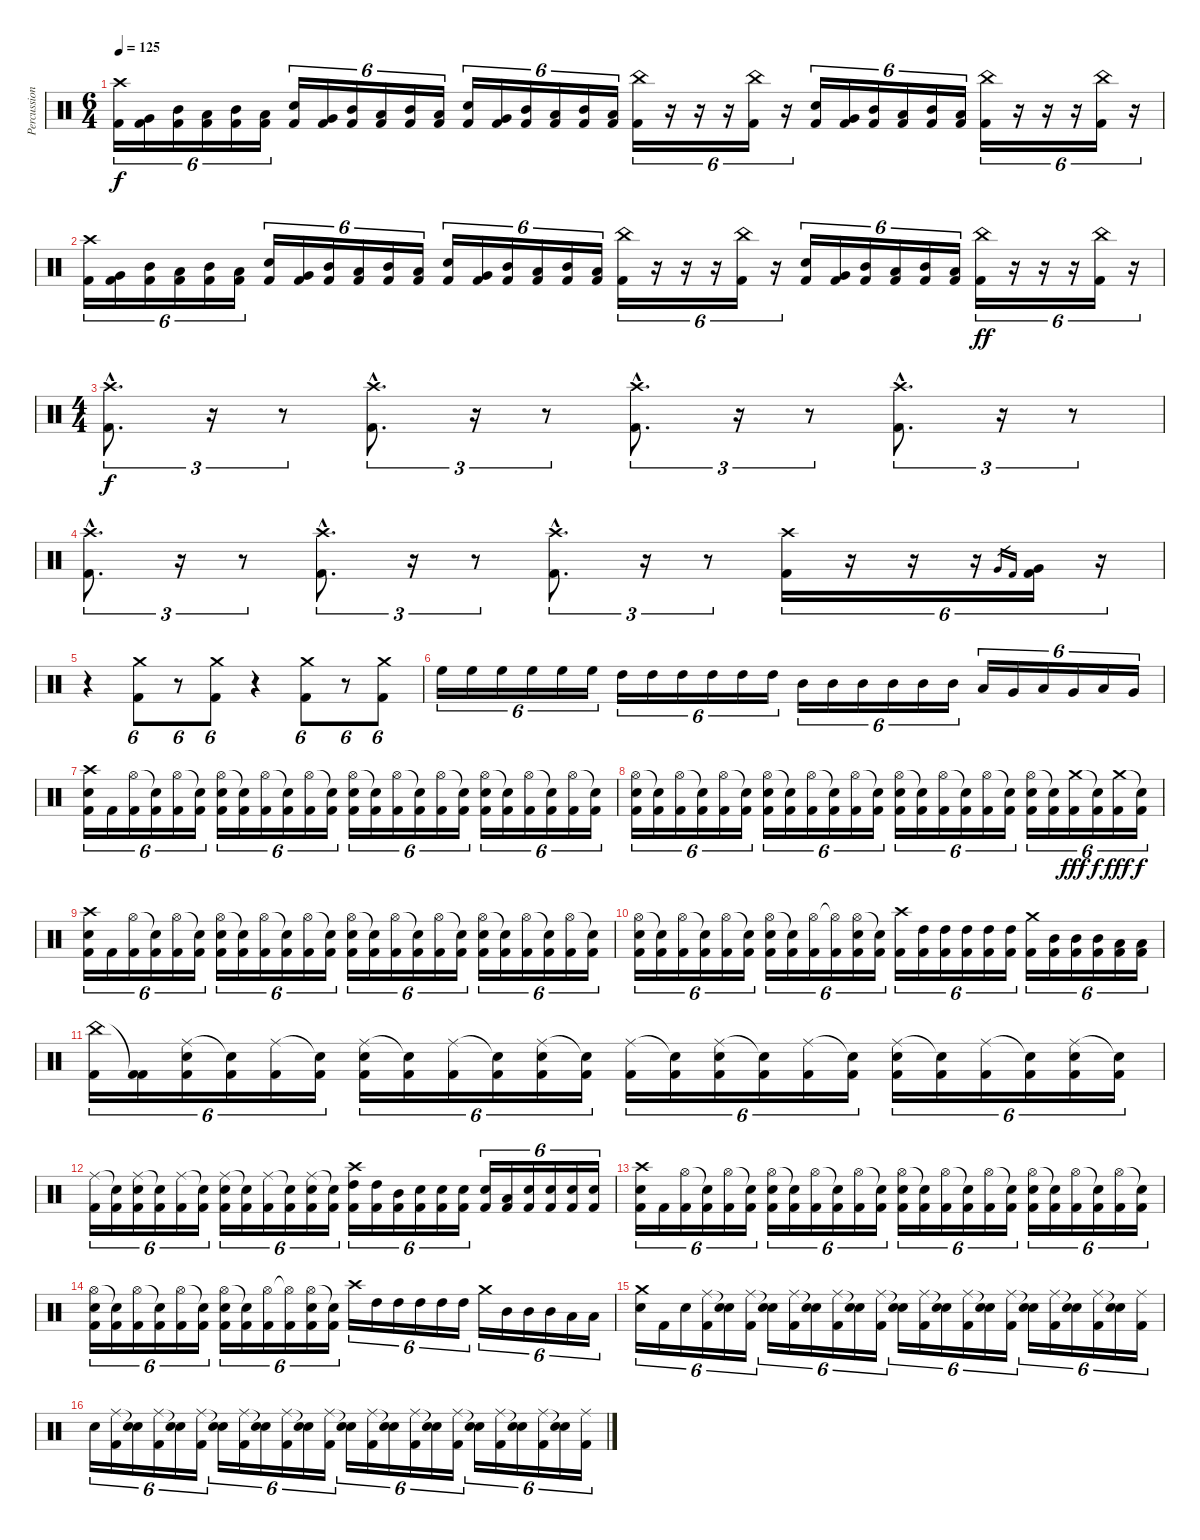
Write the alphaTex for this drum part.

\track ("Percussion" "Percussion") {instrument percussion}
\staff {score}
\articulation defaults
\ts (6 4)
\tempo 125
\clef neutral
\ks c
("Crash high (hit)" "Kick (hit) 2").16{tu (6 4) dy f} ("Very Low Tom (hit)" "Kick (hit) 2").16{tu (6 4)} ("Mid Tom (hit)" "Kick (hit) 2").16{tu (6 4)} ("Low Tom (hit)" "Kick (hit) 2").16{tu (6 4)} ("Mid Tom (hit)" "Kick (hit) 2").16{tu (6 4)} ("Low Tom (hit)" "Kick (hit) 2").16{tu (6 4)} ("Snare (hit) 2" "Kick (hit) 2").16{tu (6 4)} ("Very Low Tom (hit)" "Kick (hit) 2").16{tu (6 4)} ("Mid Tom (hit)" "Kick (hit) 2").16{tu (6 4)} ("Low Tom (hit)" "Kick (hit) 2").16{tu (6 4)} ("Mid Tom (hit)" "Kick (hit) 2").16{tu (6 4)} ("Low Tom (hit)" "Kick (hit) 2").16{tu (6 4)} ("Snare (hit) 2" "Kick (hit) 2").16{tu (6 4)} ("Very Low Tom (hit)" "Kick (hit) 2").16{tu (6 4)} ("Mid Tom (hit)" "Kick (hit) 2").16{tu (6 4)} ("Low Tom (hit)" "Kick (hit) 2").16{tu (6 4)} ("Mid Tom (hit)" "Kick (hit) 2").16{tu (6 4)} ("Low Tom (hit)" "Kick (hit) 2").16{tu (6 4)} ("China (hit)" "Kick (hit) 2").16{tu (6 4)} r.16{tu (6 4)} r.16{tu (6 4)} r.16{tu (6 4)} ("China (hit)" "Kick (hit) 2").16{tu (6 4)} r.16{tu (6 4)} ("Snare (hit) 2" "Kick (hit) 2").16{tu (6 4)} ("Very Low Tom (hit)" "Kick (hit) 2").16{tu (6 4)} ("Mid Tom (hit)" "Kick (hit) 2").16{tu (6 4)} ("Low Tom (hit)" "Kick (hit) 2").16{tu (6 4)} ("Mid Tom (hit)" "Kick (hit) 2").16{tu (6 4)} ("Low Tom (hit)" "Kick (hit) 2").16{tu (6 4)} ("China (hit)" "Kick (hit) 2").16{tu (6 4)} r.16{tu (6 4)} r.16{tu (6 4)} r.16{tu (6 4)} ("China (hit)" "Kick (hit) 2").16{tu (6 4)} r.16{tu (6 4)} |
("Crash high (hit)" "Kick (hit) 2").16{tu (6 4)} ("Very Low Tom (hit)" "Kick (hit) 2").16{tu (6 4)} ("Mid Tom (hit)" "Kick (hit) 2").16{tu (6 4)} ("Low Tom (hit)" "Kick (hit) 2").16{tu (6 4)} ("Mid Tom (hit)" "Kick (hit) 2").16{tu (6 4)} ("Low Tom (hit)" "Kick (hit) 2").16{tu (6 4)} ("Snare (hit) 2" "Kick (hit) 2").16{tu (6 4)} ("Very Low Tom (hit)" "Kick (hit) 2").16{tu (6 4)} ("Mid Tom (hit)" "Kick (hit) 2").16{tu (6 4)} ("Low Tom (hit)" "Kick (hit) 2").16{tu (6 4)} ("Mid Tom (hit)" "Kick (hit) 2").16{tu (6 4)} ("Low Tom (hit)" "Kick (hit) 2").16{tu (6 4)} ("Snare (hit) 2" "Kick (hit) 2").16{tu (6 4)} ("Very Low Tom (hit)" "Kick (hit) 2").16{tu (6 4)} ("Mid Tom (hit)" "Kick (hit) 2").16{tu (6 4)} ("Low Tom (hit)" "Kick (hit) 2").16{tu (6 4)} ("Mid Tom (hit)" "Kick (hit) 2").16{tu (6 4)} ("Low Tom (hit)" "Kick (hit) 2").16{tu (6 4)} ("China (hit)" "Kick (hit) 2").16{tu (6 4)} r.16{tu (6 4)} r.16{tu (6 4)} r.16{tu (6 4)} ("China (hit)" "Kick (hit) 2").16{tu (6 4)} r.16{tu (6 4)} ("Snare (hit) 2" "Kick (hit) 2").16{tu (6 4)} ("Very Low Tom (hit)" "Kick (hit) 2").16{tu (6 4)} ("Mid Tom (hit)" "Kick (hit) 2").16{tu (6 4)} ("Low Tom (hit)" "Kick (hit) 2").16{tu (6 4)} ("Mid Tom (hit)" "Kick (hit) 2").16{tu (6 4)} ("Low Tom (hit)" "Kick (hit) 2").16{tu (6 4)} ("China (hit)" "Kick (hit) 2").16{tu (6 4) dy ff} r.16{tu (6 4)} r.16{tu (6 4)} r.16{tu (6 4)} ("China (hit)" "Kick (hit) 2").16{tu (6 4)} r.16{tu (6 4)} |
\ts (4 4)
("Crash high (hit)"{hac} "Kick (hit) 2"{hac}).8{d tu (3 2) dy f} r.16{tu (3 2) volume 0} r.8{tu (3 2)} ("Crash high (hit)"{hac} "Kick (hit) 2"{hac}).8{d tu (3 2) volume 16} r.16{tu (3 2) volume 0} r.8{tu (3 2)} ("Crash high (hit)"{hac} "Kick (hit) 2"{hac}).8{d tu (3 2) volume 16} r.16{tu (3 2) volume 0} r.8{tu (3 2)} ("Crash high (hit)"{hac} "Kick (hit) 2"{hac}).8{d tu (3 2) volume 16} r.16{tu (3 2) volume 0} r.8{tu (3 2)} |
("Crash high (hit)"{hac} "Kick (hit) 2"{hac}).8{d tu (3 2) volume 16} r.16{tu (3 2) volume 0} r.8{tu (3 2)} ("Crash high (hit)"{hac} "Kick (hit) 2"{hac}).8{d tu (3 2) volume 16} r.16{tu (3 2) volume 0} r.8{tu (3 2)} ("Crash high (hit)"{hac} "Kick (hit) 2"{hac}).8{d tu (3 2) volume 16} r.16{tu (3 2) volume 0} r.8{tu (3 2)} ("Crash high (hit)" "Kick (hit) 2").16{tu (6 4) volume 16} r.16{tu (6 4)} r.16{tu (6 4)} r.16{tu (6 4)} "Very Low Tom (hit)".16{gr} "Kick (hit) 2".16{gr} ("Very Low Tom (hit)" "Kick (hit) 2").16{tu (6 4) volume 16} r.16{tu (6 4)} |
r.4 ("Crash medium (hit)" "Kick (hit) 2").8{tu (6 4)} r.8{tu (6 4)} ("Crash medium (hit)" "Kick (hit) 2").8{tu (6 4) volume 16} r.4{volume 0} ("Crash medium (hit)" "Kick (hit) 2").8{tu (6 4) volume 16} r.8{tu (6 4)} ("Crash medium (hit)" "Kick (hit) 2").8{tu (6 4)} |
"High Floor Tom (hit)".16{tu (6 4)} "High Floor Tom (hit)".16{tu (6 4)} "High Floor Tom (hit)".16{tu (6 4)} "High Floor Tom (hit)".16{tu (6 4)} "High Floor Tom (hit)".16{tu (6 4)} "High Floor Tom (hit)".16{tu (6 4)} "High Tom (hit)".16{tu (6 4)} "High Tom (hit)".16{tu (6 4)} "High Tom (hit)".16{tu (6 4)} "High Tom (hit)".16{tu (6 4)} "High Tom (hit)".16{tu (6 4)} "High Tom (hit)".16{tu (6 4)} "Mid Tom (hit)".16{tu (6 4)} "Mid Tom (hit)".16{tu (6 4)} "Mid Tom (hit)".16{tu (6 4)} "Mid Tom (hit)".16{tu (6 4)} "Mid Tom (hit)".16{tu (6 4)} "Mid Tom (hit)".16{tu (6 4)} "Low Tom (hit)".16{tu (6 4)} "Very Low Tom (hit)".16{tu (6 4)} "Low Tom (hit)".16{tu (6 4)} "Very Low Tom (hit)".16{tu (6 4)} "Low Tom (hit)".16{tu (6 4)} "Very Low Tom (hit)".16{tu (6 4)} |
("Crash high (hit)" "Snare (hit) 2" "Kick (hit) 2").16{tu (6 4)} "Kick (hit) 2".16{tu (6 4)} ("Hi-Hat (open)" "Kick (hit) 2").16{tu (6 4)} ("Snare (hit)"{t} "Kick (hit) 2").16{tu (6 4)} ("Hi-Hat (open)" "Kick (hit) 2").16{tu (6 4)} ("Snare (hit)"{t} "Kick (hit) 2").16{tu (6 4)} ("Hi-Hat (open)" "Snare (hit) 2" "Kick (hit) 2").16{tu (6 4)} ("Snare (hit)"{t} "Kick (hit) 2").16{tu (6 4)} ("Hi-Hat (open)" "Kick (hit) 2").16{tu (6 4)} ("Snare (hit)"{t} "Kick (hit) 2").16{tu (6 4)} ("Hi-Hat (open)" "Kick (hit) 2").16{tu (6 4)} ("Snare (hit)"{t} "Kick (hit) 2").16{tu (6 4)} ("Hi-Hat (open)" "Snare (hit) 2" "Kick (hit) 2").16{tu (6 4)} ("Snare (hit)"{t} "Kick (hit) 2").16{tu (6 4)} ("Hi-Hat (open)" "Kick (hit) 2").16{tu (6 4)} ("Snare (hit)"{t} "Kick (hit) 2").16{tu (6 4)} ("Hi-Hat (open)" "Kick (hit) 2").16{tu (6 4)} ("Snare (hit)"{t} "Kick (hit) 2").16{tu (6 4)} ("Hi-Hat (open)" "Snare (hit) 2" "Kick (hit) 2").16{tu (6 4)} ("Snare (hit)"{t} "Kick (hit) 2").16{tu (6 4)} ("Hi-Hat (open)" "Kick (hit) 2").16{tu (6 4)} ("Snare (hit)"{t} "Kick (hit) 2").16{tu (6 4)} ("Hi-Hat (open)" "Kick (hit) 2").16{tu (6 4)} ("Snare (hit)"{t} "Kick (hit) 2").16{tu (6 4)} |
("Hi-Hat (open)" "Snare (hit) 2" "Kick (hit) 2").16{tu (6 4)} ("Snare (hit)"{t} "Kick (hit) 2").16{tu (6 4)} ("Hi-Hat (open)" "Kick (hit) 2").16{tu (6 4)} ("Snare (hit)"{t} "Kick (hit) 2").16{tu (6 4)} ("Hi-Hat (open)" "Kick (hit) 2").16{tu (6 4)} ("Snare (hit)"{t} "Kick (hit) 2").16{tu (6 4)} ("Hi-Hat (open)" "Snare (hit) 2" "Kick (hit) 2").16{tu (6 4)} ("Snare (hit)"{t} "Kick (hit) 2").16{tu (6 4)} ("Hi-Hat (open)" "Kick (hit) 2").16{tu (6 4)} ("Snare (hit)"{t} "Kick (hit) 2").16{tu (6 4)} ("Hi-Hat (open)" "Kick (hit) 2").16{tu (6 4)} ("Snare (hit)"{t} "Kick (hit) 2").16{tu (6 4)} ("Hi-Hat (open)" "Snare (hit) 2" "Kick (hit) 2").16{tu (6 4)} ("Snare (hit)"{t} "Kick (hit) 2").16{tu (6 4)} ("Hi-Hat (open)" "Kick (hit) 2").16{tu (6 4)} ("Snare (hit)"{t} "Kick (hit) 2").16{tu (6 4)} ("Hi-Hat (open)" "Kick (hit) 2").16{tu (6 4)} ("Snare (hit)"{t} "Kick (hit) 2").16{tu (6 4)} ("Hi-Hat (open)" "Snare (hit) 2" "Kick (hit) 2").16{tu (6 4)} ("Snare (hit)"{t} "Kick (hit) 2").16{tu (6 4)} ("Crash medium (hit)" "Kick (hit) 2").16{tu (6 4) dy fff} ("Snare (hit)"{t} "Kick (hit) 2").16{tu (6 4) dy f} ("Crash medium (hit)" "Kick (hit) 2").16{tu (6 4) dy fff} ("Snare (hit)"{t} "Kick (hit) 2").16{tu (6 4) dy f} |
("Crash high (hit)" "Snare (hit) 2" "Kick (hit) 2").16{tu (6 4)} "Kick (hit) 2".16{tu (6 4)} ("Hi-Hat (open)" "Kick (hit) 2").16{tu (6 4)} ("Snare (hit)"{t} "Kick (hit) 2").16{tu (6 4)} ("Hi-Hat (open)" "Kick (hit) 2").16{tu (6 4)} ("Snare (hit)"{t} "Kick (hit) 2").16{tu (6 4)} ("Hi-Hat (open)" "Snare (hit) 2" "Kick (hit) 2").16{tu (6 4)} ("Snare (hit)"{t} "Kick (hit) 2").16{tu (6 4)} ("Hi-Hat (open)" "Kick (hit) 2").16{tu (6 4)} ("Snare (hit)"{t} "Kick (hit) 2").16{tu (6 4)} ("Hi-Hat (open)" "Kick (hit) 2").16{tu (6 4)} ("Snare (hit)"{t} "Kick (hit) 2").16{tu (6 4)} ("Hi-Hat (open)" "Snare (hit) 2" "Kick (hit) 2").16{tu (6 4)} ("Snare (hit)"{t} "Kick (hit) 2").16{tu (6 4)} ("Hi-Hat (open)" "Kick (hit) 2").16{tu (6 4)} ("Snare (hit)"{t} "Kick (hit) 2").16{tu (6 4)} ("Hi-Hat (open)" "Kick (hit) 2").16{tu (6 4)} ("Snare (hit)"{t} "Kick (hit) 2").16{tu (6 4)} ("Hi-Hat (open)" "Snare (hit) 2" "Kick (hit) 2").16{tu (6 4)} ("Snare (hit)"{t} "Kick (hit) 2").16{tu (6 4)} ("Hi-Hat (open)" "Kick (hit) 2").16{tu (6 4)} ("Snare (hit)"{t} "Kick (hit) 2").16{tu (6 4)} ("Hi-Hat (open)" "Kick (hit) 2").16{tu (6 4)} ("Snare (hit)"{t} "Kick (hit) 2").16{tu (6 4)} |
("Hi-Hat (open)" "Snare (hit) 2" "Kick (hit) 2").16{tu (6 4)} ("Snare (hit)"{t} "Kick (hit) 2").16{tu (6 4)} ("Hi-Hat (open)" "Kick (hit) 2").16{tu (6 4)} ("Snare (hit)"{t} "Kick (hit) 2").16{tu (6 4)} ("Hi-Hat (open)" "Kick (hit) 2").16{tu (6 4)} ("Snare (hit)"{t} "Kick (hit) 2").16{tu (6 4)} ("Hi-Hat (open)" "Snare (hit) 2" "Kick (hit) 2").16{tu (6 4)} ("Snare (hit)"{t} "Kick (hit) 2").16{tu (6 4)} ("Hi-Hat (open)" "Kick (hit) 2").16{tu (6 4)} ("Hi-Hat (open)"{t} "Kick (hit) 2").16{tu (6 4)} ("Hi-Hat (open)" "Snare (hit) 2" "Kick (hit) 2").16{tu (6 4)} ("Snare (hit)"{t} "Kick (hit) 2").16{tu (6 4)} ("Crash high (hit)" "Kick (hit) 2").16{tu (6 4)} ("High Tom (hit)" "Kick (hit) 2").16{tu (6 4)} ("High Tom (hit)" "Kick (hit) 2").16{tu (6 4)} ("High Tom (hit)" "Kick (hit) 2").16{tu (6 4)} ("High Tom (hit)" "Kick (hit) 2").16{tu (6 4)} ("High Tom (hit)" "Kick (hit) 2").16{tu (6 4)} ("Crash medium (hit)" "Kick (hit) 2").16{tu (6 4)} ("Mid Tom (hit)" "Kick (hit) 2").16{tu (6 4)} ("Mid Tom (hit)" "Kick (hit) 2").16{tu (6 4)} ("Mid Tom (hit)" "Kick (hit) 2").16{tu (6 4)} ("Low Tom (hit)" "Kick (hit) 2").16{tu (6 4)} ("Low Tom (hit)" "Kick (hit) 2").16{tu (6 4)} |
("China (hit)" "Kick (hit) 2").16{tu (6 4)} ("Kick (hit) 2"{t} "Kick (hit) 2").16{tu (6 4)} ("Ride (middle)" "Snare (hit) 2" "Kick (hit) 2").16{tu (6 4)} ("Snare (hit)"{t} "Kick (hit) 2").16{tu (6 4)} ("Ride (middle)" "Kick (hit) 2").16{tu (6 4)} ("Snare (hit)"{t} "Kick (hit) 2").16{tu (6 4)} ("Ride (middle)" "Snare (hit) 2" "Kick (hit) 2").16{tu (6 4)} ("Snare (hit)"{t} "Kick (hit) 2").16{tu (6 4)} ("Ride (middle)" "Kick (hit) 2").16{tu (6 4)} ("Snare (hit)"{t} "Kick (hit) 2").16{tu (6 4)} ("Ride (middle)" "Snare (hit) 2" "Kick (hit) 2").16{tu (6 4)} ("Snare (hit)"{t} "Kick (hit) 2").16{tu (6 4)} ("Ride (middle)" "Kick (hit) 2").16{tu (6 4)} ("Snare (hit)"{t} "Kick (hit) 2").16{tu (6 4)} ("Ride (middle)" "Snare (hit) 2" "Kick (hit) 2").16{tu (6 4)} ("Snare (hit)"{t} "Kick (hit) 2").16{tu (6 4)} ("Ride (middle)" "Kick (hit) 2").16{tu (6 4)} ("Snare (hit)"{t} "Kick (hit) 2").16{tu (6 4)} ("Ride (middle)" "Snare (hit) 2" "Kick (hit) 2").16{tu (6 4)} ("Snare (hit)"{t} "Kick (hit) 2").16{tu (6 4)} ("Ride (middle)" "Kick (hit) 2").16{tu (6 4)} ("Snare (hit)"{t} "Kick (hit) 2").16{tu (6 4)} ("Ride (middle)" "Snare (hit) 2" "Kick (hit) 2").16{tu (6 4)} ("Snare (hit)"{t} "Kick (hit) 2").16{tu (6 4)} |
("Ride (middle)" "Kick (hit) 2").16{tu (6 4)} ("Snare (hit)"{t} "Kick (hit) 2").16{tu (6 4)} ("Ride (middle)" "Snare (hit) 2" "Kick (hit) 2").16{tu (6 4)} ("Snare (hit)"{t} "Kick (hit) 2").16{tu (6 4)} ("Ride (middle)" "Kick (hit) 2").16{tu (6 4)} ("Snare (hit)"{t} "Kick (hit) 2").16{tu (6 4)} ("Ride (middle)" "Snare (hit) 2" "Kick (hit) 2").16{tu (6 4)} ("Snare (hit)"{t} "Kick (hit) 2").16{tu (6 4)} ("Ride (middle)" "Kick (hit) 2").16{tu (6 4)} ("Snare (hit)"{t} "Kick (hit) 2").16{tu (6 4)} ("Ride (middle)" "Snare (hit) 2" "Kick (hit) 2").16{tu (6 4)} ("Snare (hit)"{t} "Kick (hit) 2").16{tu (6 4)} ("Crash high (hit)" "High Tom (hit)" "Kick (hit) 2").16{tu (6 4)} ("High Tom (hit)" "Kick (hit) 2").16{tu (6 4)} ("Mid Tom (hit)" "Kick (hit) 2").16{tu (6 4)} ("Snare (hit) 2" "Kick (hit) 2").16{tu (6 4)} ("Snare (hit) 2" "Kick (hit) 2").16{tu (6 4)} ("Snare (hit) 2" "Kick (hit) 2").16{tu (6 4)} ("Snare (hit) 2" "Kick (hit) 2").16{tu (6 4)} ("Low Tom (hit)" "Kick (hit) 2").16{tu (6 4)} ("Snare (hit) 2" "Kick (hit) 2").16{tu (6 4)} ("Snare (hit) 2" "Kick (hit) 2").16{tu (6 4)} ("Snare (hit) 2" "Kick (hit) 2").16{tu (6 4)} ("Snare (hit) 2" "Kick (hit) 2").16{tu (6 4)} |
("Crash high (hit)" "Snare (hit) 2" "Kick (hit) 2").16{tu (6 4)} "Kick (hit) 2".16{tu (6 4)} ("Hi-Hat (open)" "Kick (hit) 2").16{tu (6 4)} ("Snare (hit)"{t} "Kick (hit) 2").16{tu (6 4)} ("Hi-Hat (open)" "Kick (hit) 2").16{tu (6 4)} ("Snare (hit)"{t} "Kick (hit) 2").16{tu (6 4)} ("Hi-Hat (open)" "Snare (hit) 2" "Kick (hit) 2").16{tu (6 4)} ("Snare (hit)"{t} "Kick (hit) 2").16{tu (6 4)} ("Hi-Hat (open)" "Kick (hit) 2").16{tu (6 4)} ("Snare (hit)"{t} "Kick (hit) 2").16{tu (6 4)} ("Hi-Hat (open)" "Kick (hit) 2").16{tu (6 4)} ("Snare (hit)"{t} "Kick (hit) 2").16{tu (6 4)} ("Hi-Hat (open)" "Snare (hit) 2" "Kick (hit) 2").16{tu (6 4)} ("Snare (hit)"{t} "Kick (hit) 2").16{tu (6 4)} ("Hi-Hat (open)" "Kick (hit) 2").16{tu (6 4)} ("Snare (hit)"{t} "Kick (hit) 2").16{tu (6 4)} ("Hi-Hat (open)" "Kick (hit) 2").16{tu (6 4)} ("Snare (hit)"{t} "Kick (hit) 2").16{tu (6 4)} ("Hi-Hat (open)" "Snare (hit) 2" "Kick (hit) 2").16{tu (6 4)} ("Snare (hit)"{t} "Kick (hit) 2").16{tu (6 4)} ("Hi-Hat (open)" "Kick (hit) 2").16{tu (6 4)} ("Snare (hit)"{t} "Kick (hit) 2").16{tu (6 4)} ("Hi-Hat (open)" "Kick (hit) 2").16{tu (6 4)} ("Snare (hit)"{t} "Kick (hit) 2").16{tu (6 4)} |
("Hi-Hat (open)" "Snare (hit) 2" "Kick (hit) 2").16{tu (6 4)} ("Snare (hit)"{t} "Kick (hit) 2").16{tu (6 4)} ("Hi-Hat (open)" "Kick (hit) 2").16{tu (6 4)} ("Snare (hit)"{t} "Kick (hit) 2").16{tu (6 4)} ("Hi-Hat (open)" "Kick (hit) 2").16{tu (6 4)} ("Snare (hit)"{t} "Kick (hit) 2").16{tu (6 4)} ("Hi-Hat (open)" "Snare (hit) 2" "Kick (hit) 2").16{tu (6 4)} ("Snare (hit)"{t} "Kick (hit) 2").16{tu (6 4)} ("Hi-Hat (open)" "Kick (hit) 2").16{tu (6 4)} ("Hi-Hat (open)"{t} "Kick (hit) 2").16{tu (6 4)} ("Hi-Hat (open)" "Snare (hit) 2" "Kick (hit) 2").16{tu (6 4)} ("Snare (hit)"{t} "Kick (hit) 2").16{tu (6 4)} "Crash high (hit)".16{tu (6 4)} "High Tom (hit)".16{tu (6 4)} "High Tom (hit)".16{tu (6 4)} "High Tom (hit)".16{tu (6 4)} "High Tom (hit)".16{tu (6 4)} "High Tom (hit)".16{tu (6 4)} "Crash medium (hit)".16{tu (6 4)} "Mid Tom (hit)".16{tu (6 4)} "Mid Tom (hit)".16{tu (6 4)} "Mid Tom (hit)".16{tu (6 4)} "Low Tom (hit)".16{tu (6 4)} "Low Tom (hit)".16{tu (6 4)} |
("Crash medium (hit)" "Snare (hit) 2").16{tu (6 4)} "Kick (hit) 2".16{tu (6 4)} "Snare (hit) 2".16{tu (6 4)} ("Ride (middle)" "Kick (hit) 2").16{tu (6 4)} ("Snare (hit) 2"{t} "Snare (hit) 2").16{tu (6 4)} ("Ride (middle)" "Kick (hit) 2").16{tu (6 4)} ("Snare (hit) 2"{t} "Snare (hit) 2").16{tu (6 4)} ("Ride (middle)" "Kick (hit) 2").16{tu (6 4)} ("Snare (hit) 2"{t} "Snare (hit) 2").16{tu (6 4)} ("Ride (middle)" "Kick (hit) 2").16{tu (6 4)} ("Snare (hit) 2"{t} "Snare (hit) 2").16{tu (6 4)} ("Ride (middle)" "Kick (hit) 2").16{tu (6 4)} ("Snare (hit) 2"{t} "Snare (hit) 2").16{tu (6 4)} ("Ride (middle)" "Kick (hit) 2").16{tu (6 4)} ("Snare (hit) 2"{t} "Snare (hit) 2").16{tu (6 4)} ("Ride (middle)" "Kick (hit) 2").16{tu (6 4)} ("Snare (hit) 2"{t} "Snare (hit) 2").16{tu (6 4)} ("Ride (middle)" "Kick (hit) 2").16{tu (6 4)} ("Snare (hit) 2"{t} "Snare (hit) 2").16{tu (6 4)} ("Ride (middle)" "Kick (hit) 2").16{tu (6 4)} ("Snare (hit) 2"{t} "Snare (hit) 2").16{tu (6 4)} ("Ride (middle)" "Kick (hit) 2").16{tu (6 4)} ("Snare (hit) 2"{t} "Snare (hit) 2").16{tu (6 4)} ("Ride (middle)" "Kick (hit) 2").16{tu (6 4)} |
"Snare (hit) 2".16{tu (6 4)} ("Ride (middle)" "Kick (hit) 2").16{tu (6 4)} ("Snare (hit) 2"{t} "Snare (hit) 2").16{tu (6 4)} ("Ride (middle)" "Kick (hit) 2").16{tu (6 4)} ("Snare (hit) 2"{t} "Snare (hit) 2").16{tu (6 4)} ("Ride (middle)" "Kick (hit) 2").16{tu (6 4)} ("Snare (hit) 2"{t} "Snare (hit) 2").16{tu (6 4)} ("Ride (middle)" "Kick (hit) 2").16{tu (6 4)} ("Snare (hit) 2"{t} "Snare (hit) 2").16{tu (6 4)} ("Ride (middle)" "Kick (hit) 2").16{tu (6 4)} ("Snare (hit) 2"{t} "Snare (hit) 2").16{tu (6 4)} ("Ride (middle)" "Kick (hit) 2").16{tu (6 4)} ("Snare (hit) 2"{t} "Snare (hit) 2").16{tu (6 4)} ("Ride (middle)" "Kick (hit) 2").16{tu (6 4)} ("Snare (hit) 2"{t} "Snare (hit) 2").16{tu (6 4)} ("Ride (middle)" "Kick (hit) 2").16{tu (6 4)} ("Snare (hit) 2"{t} "Snare (hit) 2").16{tu (6 4)} ("Ride (middle)" "Kick (hit) 2").16{tu (6 4)} ("Snare (hit) 2"{t} "Snare (hit) 2").16{tu (6 4)} ("Ride (middle)" "Kick (hit) 2").16{tu (6 4)} ("Snare (hit) 2"{t} "Snare (hit) 2").16{tu (6 4)} ("Ride (middle)" "Kick (hit) 2").16{tu (6 4)} ("Snare (hit) 2"{t} "Snare (hit) 2").16{tu (6 4)} ("Ride (middle)" "Kick (hit) 2").16{tu (6 4)}
